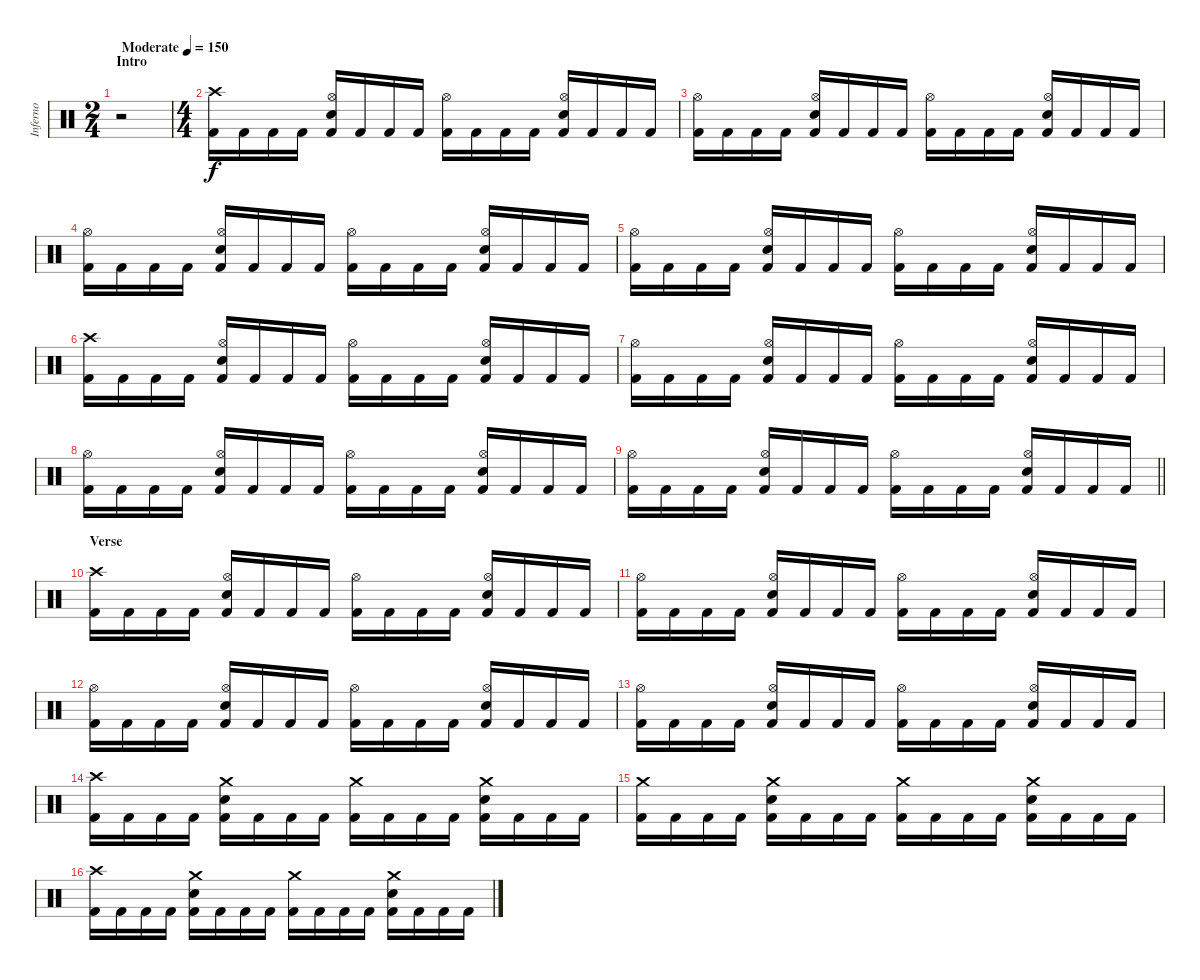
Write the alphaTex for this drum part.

\track ("Inferno" "Inferno") {instrument percussion}
\staff {score}
\articulation defaults
\ts (2 4)
\section ("" "Intro")
\tempo (150 "Moderate")
\clef neutral
\ks c
r.2{dy f} |
\ts (4 4)
("Crash high (hit)" "Kick (hit) 2").16 "Kick (hit) 2".16 "Kick (hit) 2".16 "Kick (hit) 2".16 ("Hi-Hat (open)" "Electric Snare (hit)" "Kick (hit) 2").16 "Kick (hit) 2".16 "Kick (hit) 2".16 "Kick (hit) 2".16 ("Hi-Hat (open)" "Kick (hit) 2").16 "Kick (hit) 2".16 "Kick (hit) 2".16 "Kick (hit) 2".16 ("Hi-Hat (open)" "Electric Snare (hit)" "Kick (hit) 2").16 "Kick (hit) 2".16 "Kick (hit) 2".16 "Kick (hit) 2".16 |
("Hi-Hat (open)" "Kick (hit) 2").16 "Kick (hit) 2".16 "Kick (hit) 2".16 "Kick (hit) 2".16 ("Hi-Hat (open)" "Electric Snare (hit)" "Kick (hit) 2").16 "Kick (hit) 2".16 "Kick (hit) 2".16 "Kick (hit) 2".16 ("Hi-Hat (open)" "Kick (hit) 2").16 "Kick (hit) 2".16 "Kick (hit) 2".16 "Kick (hit) 2".16 ("Hi-Hat (open)" "Electric Snare (hit)" "Kick (hit) 2").16 "Kick (hit) 2".16 "Kick (hit) 2".16 "Kick (hit) 2".16 |
("Hi-Hat (open)" "Kick (hit) 2").16 "Kick (hit) 2".16 "Kick (hit) 2".16 "Kick (hit) 2".16 ("Hi-Hat (open)" "Electric Snare (hit)" "Kick (hit) 2").16 "Kick (hit) 2".16 "Kick (hit) 2".16 "Kick (hit) 2".16 ("Hi-Hat (open)" "Kick (hit) 2").16 "Kick (hit) 2".16 "Kick (hit) 2".16 "Kick (hit) 2".16 ("Hi-Hat (open)" "Electric Snare (hit)" "Kick (hit) 2").16 "Kick (hit) 2".16 "Kick (hit) 2".16 "Kick (hit) 2".16 |
("Hi-Hat (open)" "Kick (hit) 2").16 "Kick (hit) 2".16 "Kick (hit) 2".16 "Kick (hit) 2".16 ("Hi-Hat (open)" "Electric Snare (hit)" "Kick (hit) 2").16 "Kick (hit) 2".16 "Kick (hit) 2".16 "Kick (hit) 2".16 ("Hi-Hat (open)" "Kick (hit) 2").16 "Kick (hit) 2".16 "Kick (hit) 2".16 "Kick (hit) 2".16 ("Hi-Hat (open)" "Electric Snare (hit)" "Kick (hit) 2").16 "Kick (hit) 2".16 "Kick (hit) 2".16 "Kick (hit) 2".16 |
("Crash high (hit)" "Kick (hit) 2").16 "Kick (hit) 2".16 "Kick (hit) 2".16 "Kick (hit) 2".16 ("Hi-Hat (open)" "Electric Snare (hit)" "Kick (hit) 2").16 "Kick (hit) 2".16 "Kick (hit) 2".16 "Kick (hit) 2".16 ("Hi-Hat (open)" "Kick (hit) 2").16 "Kick (hit) 2".16 "Kick (hit) 2".16 "Kick (hit) 2".16 ("Hi-Hat (open)" "Electric Snare (hit)" "Kick (hit) 2").16 "Kick (hit) 2".16 "Kick (hit) 2".16 "Kick (hit) 2".16 |
("Hi-Hat (open)" "Kick (hit) 2").16 "Kick (hit) 2".16 "Kick (hit) 2".16 "Kick (hit) 2".16 ("Hi-Hat (open)" "Electric Snare (hit)" "Kick (hit) 2").16 "Kick (hit) 2".16 "Kick (hit) 2".16 "Kick (hit) 2".16 ("Hi-Hat (open)" "Kick (hit) 2").16 "Kick (hit) 2".16 "Kick (hit) 2".16 "Kick (hit) 2".16 ("Hi-Hat (open)" "Electric Snare (hit)" "Kick (hit) 2").16 "Kick (hit) 2".16 "Kick (hit) 2".16 "Kick (hit) 2".16 |
("Hi-Hat (open)" "Kick (hit) 2").16 "Kick (hit) 2".16 "Kick (hit) 2".16 "Kick (hit) 2".16 ("Hi-Hat (open)" "Electric Snare (hit)" "Kick (hit) 2").16 "Kick (hit) 2".16 "Kick (hit) 2".16 "Kick (hit) 2".16 ("Hi-Hat (open)" "Kick (hit) 2").16 "Kick (hit) 2".16 "Kick (hit) 2".16 "Kick (hit) 2".16 ("Hi-Hat (open)" "Electric Snare (hit)" "Kick (hit) 2").16 "Kick (hit) 2".16 "Kick (hit) 2".16 "Kick (hit) 2".16 |
\barLineRight lightlight
("Hi-Hat (open)" "Kick (hit) 2").16 "Kick (hit) 2".16 "Kick (hit) 2".16 "Kick (hit) 2".16 ("Hi-Hat (open)" "Electric Snare (hit)" "Kick (hit) 2").16 "Kick (hit) 2".16 "Kick (hit) 2".16 "Kick (hit) 2".16 ("Hi-Hat (open)" "Kick (hit) 2").16 "Kick (hit) 2".16 "Kick (hit) 2".16 "Kick (hit) 2".16 ("Hi-Hat (open)" "Electric Snare (hit)" "Kick (hit) 2").16 "Kick (hit) 2".16 "Kick (hit) 2".16 "Kick (hit) 2".16 |
\section ("" "Verse")
("Crash high (hit)" "Kick (hit) 2").16 "Kick (hit) 2".16 "Kick (hit) 2".16 "Kick (hit) 2".16 ("Hi-Hat (open)" "Electric Snare (hit)" "Kick (hit) 2").16 "Kick (hit) 2".16 "Kick (hit) 2".16 "Kick (hit) 2".16 ("Hi-Hat (open)" "Kick (hit) 2").16 "Kick (hit) 2".16 "Kick (hit) 2".16 "Kick (hit) 2".16 ("Hi-Hat (open)" "Electric Snare (hit)" "Kick (hit) 2").16 "Kick (hit) 2".16 "Kick (hit) 2".16 "Kick (hit) 2".16 |
("Hi-Hat (open)" "Kick (hit) 2").16 "Kick (hit) 2".16 "Kick (hit) 2".16 "Kick (hit) 2".16 ("Hi-Hat (open)" "Electric Snare (hit)" "Kick (hit) 2").16 "Kick (hit) 2".16 "Kick (hit) 2".16 "Kick (hit) 2".16 ("Hi-Hat (open)" "Kick (hit) 2").16 "Kick (hit) 2".16 "Kick (hit) 2".16 "Kick (hit) 2".16 ("Hi-Hat (open)" "Electric Snare (hit)" "Kick (hit) 2").16 "Kick (hit) 2".16 "Kick (hit) 2".16 "Kick (hit) 2".16 |
("Hi-Hat (open)" "Kick (hit) 2").16 "Kick (hit) 2".16 "Kick (hit) 2".16 "Kick (hit) 2".16 ("Hi-Hat (open)" "Electric Snare (hit)" "Kick (hit) 2").16 "Kick (hit) 2".16 "Kick (hit) 2".16 "Kick (hit) 2".16 ("Hi-Hat (open)" "Kick (hit) 2").16 "Kick (hit) 2".16 "Kick (hit) 2".16 "Kick (hit) 2".16 ("Hi-Hat (open)" "Electric Snare (hit)" "Kick (hit) 2").16 "Kick (hit) 2".16 "Kick (hit) 2".16 "Kick (hit) 2".16 |
("Hi-Hat (open)" "Kick (hit) 2").16 "Kick (hit) 2".16 "Kick (hit) 2".16 "Kick (hit) 2".16 ("Hi-Hat (open)" "Electric Snare (hit)" "Kick (hit) 2").16 "Kick (hit) 2".16 "Kick (hit) 2".16 "Kick (hit) 2".16 ("Hi-Hat (open)" "Kick (hit) 2").16 "Kick (hit) 2".16 "Kick (hit) 2".16 "Kick (hit) 2".16 ("Hi-Hat (open)" "Electric Snare (hit)" "Kick (hit) 2").16 "Kick (hit) 2".16 "Kick (hit) 2".16 "Kick (hit) 2".16 |
("Crash high (hit)" "Kick (hit) 2").16 "Kick (hit) 2".16 "Kick (hit) 2".16 "Kick (hit) 2".16 ("Crash medium (hit)" "Electric Snare (hit)" "Kick (hit) 2").16 "Kick (hit) 2".16 "Kick (hit) 2".16 "Kick (hit) 2".16 ("Crash medium (hit)" "Kick (hit) 2").16 "Kick (hit) 2".16 "Kick (hit) 2".16 "Kick (hit) 2".16 ("Crash medium (hit)" "Electric Snare (hit)" "Kick (hit) 2").16 "Kick (hit) 2".16 "Kick (hit) 2".16 "Kick (hit) 2".16 |
("Crash medium (hit)" "Kick (hit) 2").16 "Kick (hit) 2".16 "Kick (hit) 2".16 "Kick (hit) 2".16 ("Crash medium (hit)" "Electric Snare (hit)" "Kick (hit) 2").16 "Kick (hit) 2".16 "Kick (hit) 2".16 "Kick (hit) 2".16 ("Crash medium (hit)" "Kick (hit) 2").16 "Kick (hit) 2".16 "Kick (hit) 2".16 "Kick (hit) 2".16 ("Crash medium (hit)" "Electric Snare (hit)" "Kick (hit) 2").16 "Kick (hit) 2".16 "Kick (hit) 2".16 "Kick (hit) 2".16 |
("Crash high (hit)" "Kick (hit) 2").16 "Kick (hit) 2".16 "Kick (hit) 2".16 "Kick (hit) 2".16 ("Crash medium (hit)" "Electric Snare (hit)" "Kick (hit) 2").16 "Kick (hit) 2".16 "Kick (hit) 2".16 "Kick (hit) 2".16 ("Crash medium (hit)" "Kick (hit) 2").16 "Kick (hit) 2".16 "Kick (hit) 2".16 "Kick (hit) 2".16 ("Crash medium (hit)" "Electric Snare (hit)" "Kick (hit) 2").16 "Kick (hit) 2".16 "Kick (hit) 2".16 "Kick (hit) 2".16
